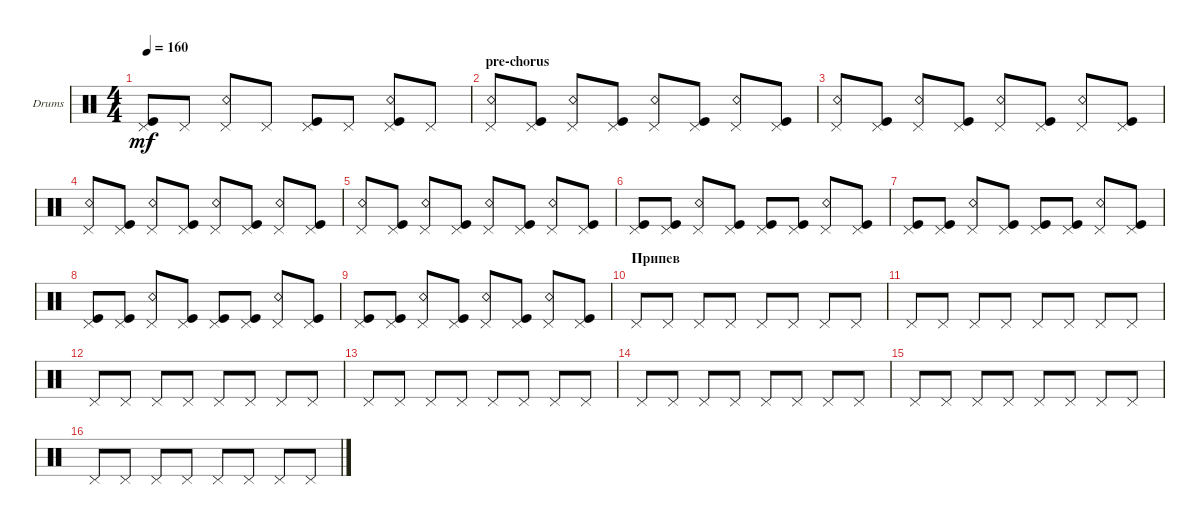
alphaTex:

\bracketExtendMode groupsimilarinstruments
\firstSystemTrackNameOrientation horizontal
\otherSystemsTrackNameOrientation horizontal
\track ("Drumkit" "Drums") {instrument percussion}
\staff {score}
\articulation defaults
\ts (4 4)
\tempo 160
\clef neutral
\ks c
("Pedal Hi-Hat (hit)" "Kick (hit)").8{dy mf} "Pedal Hi-Hat (hit)".8 ("Pedal Hi-Hat (hit)" "Snare (rim shot)").8 "Pedal Hi-Hat (hit)".8 ("Pedal Hi-Hat (hit)" "Kick (hit)").8 "Pedal Hi-Hat (hit)".8 ("Pedal Hi-Hat (hit)" "Kick (hit)" "Snare (rim shot)").8 "Pedal Hi-Hat (hit)".8 |
\section ("" "pre-chorus")
("Pedal Hi-Hat (hit)" "Snare (rim shot)").8 ("Pedal Hi-Hat (hit)" "Kick (hit)").8 ("Pedal Hi-Hat (hit)" "Snare (rim shot)").8 ("Pedal Hi-Hat (hit)" "Kick (hit)").8 ("Pedal Hi-Hat (hit)" "Snare (rim shot)").8 ("Pedal Hi-Hat (hit)" "Kick (hit)").8 ("Pedal Hi-Hat (hit)" "Snare (rim shot)").8 ("Pedal Hi-Hat (hit)" "Kick (hit)").8 |
("Pedal Hi-Hat (hit)" "Snare (rim shot)").8 ("Pedal Hi-Hat (hit)" "Kick (hit)").8 ("Pedal Hi-Hat (hit)" "Snare (rim shot)").8 ("Pedal Hi-Hat (hit)" "Kick (hit)").8 ("Pedal Hi-Hat (hit)" "Snare (rim shot)").8 ("Pedal Hi-Hat (hit)" "Kick (hit)").8 ("Pedal Hi-Hat (hit)" "Snare (rim shot)").8 ("Pedal Hi-Hat (hit)" "Kick (hit)").8 |
("Pedal Hi-Hat (hit)" "Snare (rim shot)").8 ("Pedal Hi-Hat (hit)" "Kick (hit)").8 ("Pedal Hi-Hat (hit)" "Snare (rim shot)").8 ("Pedal Hi-Hat (hit)" "Kick (hit)").8 ("Pedal Hi-Hat (hit)" "Snare (rim shot)").8 ("Pedal Hi-Hat (hit)" "Kick (hit)").8 ("Pedal Hi-Hat (hit)" "Snare (rim shot)").8 ("Pedal Hi-Hat (hit)" "Kick (hit)").8 |
("Pedal Hi-Hat (hit)" "Snare (rim shot)").8 ("Pedal Hi-Hat (hit)" "Kick (hit)").8 ("Pedal Hi-Hat (hit)" "Snare (rim shot)").8 ("Pedal Hi-Hat (hit)" "Kick (hit)").8 ("Pedal Hi-Hat (hit)" "Snare (rim shot)").8 ("Pedal Hi-Hat (hit)" "Kick (hit)").8 ("Pedal Hi-Hat (hit)" "Snare (rim shot)").8 ("Pedal Hi-Hat (hit)" "Kick (hit)").8 |
("Pedal Hi-Hat (hit)" "Kick (hit)").8 ("Pedal Hi-Hat (hit)" "Kick (hit)").8 ("Pedal Hi-Hat (hit)" "Snare (rim shot)").8 ("Pedal Hi-Hat (hit)" "Kick (hit)").8 ("Pedal Hi-Hat (hit)" "Kick (hit)").8 ("Pedal Hi-Hat (hit)" "Kick (hit)").8 ("Pedal Hi-Hat (hit)" "Snare (rim shot)").8 ("Pedal Hi-Hat (hit)" "Kick (hit)").8 |
("Pedal Hi-Hat (hit)" "Kick (hit)").8 ("Pedal Hi-Hat (hit)" "Kick (hit)").8 ("Pedal Hi-Hat (hit)" "Snare (rim shot)").8 ("Pedal Hi-Hat (hit)" "Kick (hit)").8 ("Pedal Hi-Hat (hit)" "Kick (hit)").8 ("Pedal Hi-Hat (hit)" "Kick (hit)").8 ("Pedal Hi-Hat (hit)" "Snare (rim shot)").8 ("Pedal Hi-Hat (hit)" "Kick (hit)").8 |
("Pedal Hi-Hat (hit)" "Kick (hit)").8 ("Pedal Hi-Hat (hit)" "Kick (hit)").8 ("Pedal Hi-Hat (hit)" "Snare (rim shot)").8 ("Pedal Hi-Hat (hit)" "Kick (hit)").8 ("Pedal Hi-Hat (hit)" "Kick (hit)").8 ("Pedal Hi-Hat (hit)" "Kick (hit)").8 ("Pedal Hi-Hat (hit)" "Snare (rim shot)").8 ("Pedal Hi-Hat (hit)" "Kick (hit)").8 |
("Pedal Hi-Hat (hit)" "Kick (hit)").8 ("Pedal Hi-Hat (hit)" "Kick (hit)").8 ("Pedal Hi-Hat (hit)" "Snare (rim shot)").8 ("Pedal Hi-Hat (hit)" "Kick (hit)").8 ("Pedal Hi-Hat (hit)" "Snare (rim shot)").8 ("Pedal Hi-Hat (hit)" "Kick (hit)").8 ("Pedal Hi-Hat (hit)" "Snare (rim shot)").8 ("Pedal Hi-Hat (hit)" "Kick (hit)").8 |
\section ("" "Припев")
"Pedal Hi-Hat (hit)".8 "Pedal Hi-Hat (hit)".8 "Pedal Hi-Hat (hit)".8 "Pedal Hi-Hat (hit)".8 "Pedal Hi-Hat (hit)".8 "Pedal Hi-Hat (hit)".8 "Pedal Hi-Hat (hit)".8 "Pedal Hi-Hat (hit)".8 |
"Pedal Hi-Hat (hit)".8 "Pedal Hi-Hat (hit)".8 "Pedal Hi-Hat (hit)".8 "Pedal Hi-Hat (hit)".8 "Pedal Hi-Hat (hit)".8 "Pedal Hi-Hat (hit)".8 "Pedal Hi-Hat (hit)".8 "Pedal Hi-Hat (hit)".8 |
"Pedal Hi-Hat (hit)".8 "Pedal Hi-Hat (hit)".8 "Pedal Hi-Hat (hit)".8 "Pedal Hi-Hat (hit)".8 "Pedal Hi-Hat (hit)".8 "Pedal Hi-Hat (hit)".8 "Pedal Hi-Hat (hit)".8 "Pedal Hi-Hat (hit)".8 |
"Pedal Hi-Hat (hit)".8 "Pedal Hi-Hat (hit)".8 "Pedal Hi-Hat (hit)".8 "Pedal Hi-Hat (hit)".8 "Pedal Hi-Hat (hit)".8 "Pedal Hi-Hat (hit)".8 "Pedal Hi-Hat (hit)".8 "Pedal Hi-Hat (hit)".8 |
"Pedal Hi-Hat (hit)".8 "Pedal Hi-Hat (hit)".8 "Pedal Hi-Hat (hit)".8 "Pedal Hi-Hat (hit)".8 "Pedal Hi-Hat (hit)".8 "Pedal Hi-Hat (hit)".8 "Pedal Hi-Hat (hit)".8 "Pedal Hi-Hat (hit)".8 |
"Pedal Hi-Hat (hit)".8 "Pedal Hi-Hat (hit)".8 "Pedal Hi-Hat (hit)".8 "Pedal Hi-Hat (hit)".8 "Pedal Hi-Hat (hit)".8 "Pedal Hi-Hat (hit)".8 "Pedal Hi-Hat (hit)".8 "Pedal Hi-Hat (hit)".8 |
"Pedal Hi-Hat (hit)".8 "Pedal Hi-Hat (hit)".8 "Pedal Hi-Hat (hit)".8 "Pedal Hi-Hat (hit)".8 "Pedal Hi-Hat (hit)".8 "Pedal Hi-Hat (hit)".8 "Pedal Hi-Hat (hit)".8 "Pedal Hi-Hat (hit)".8
